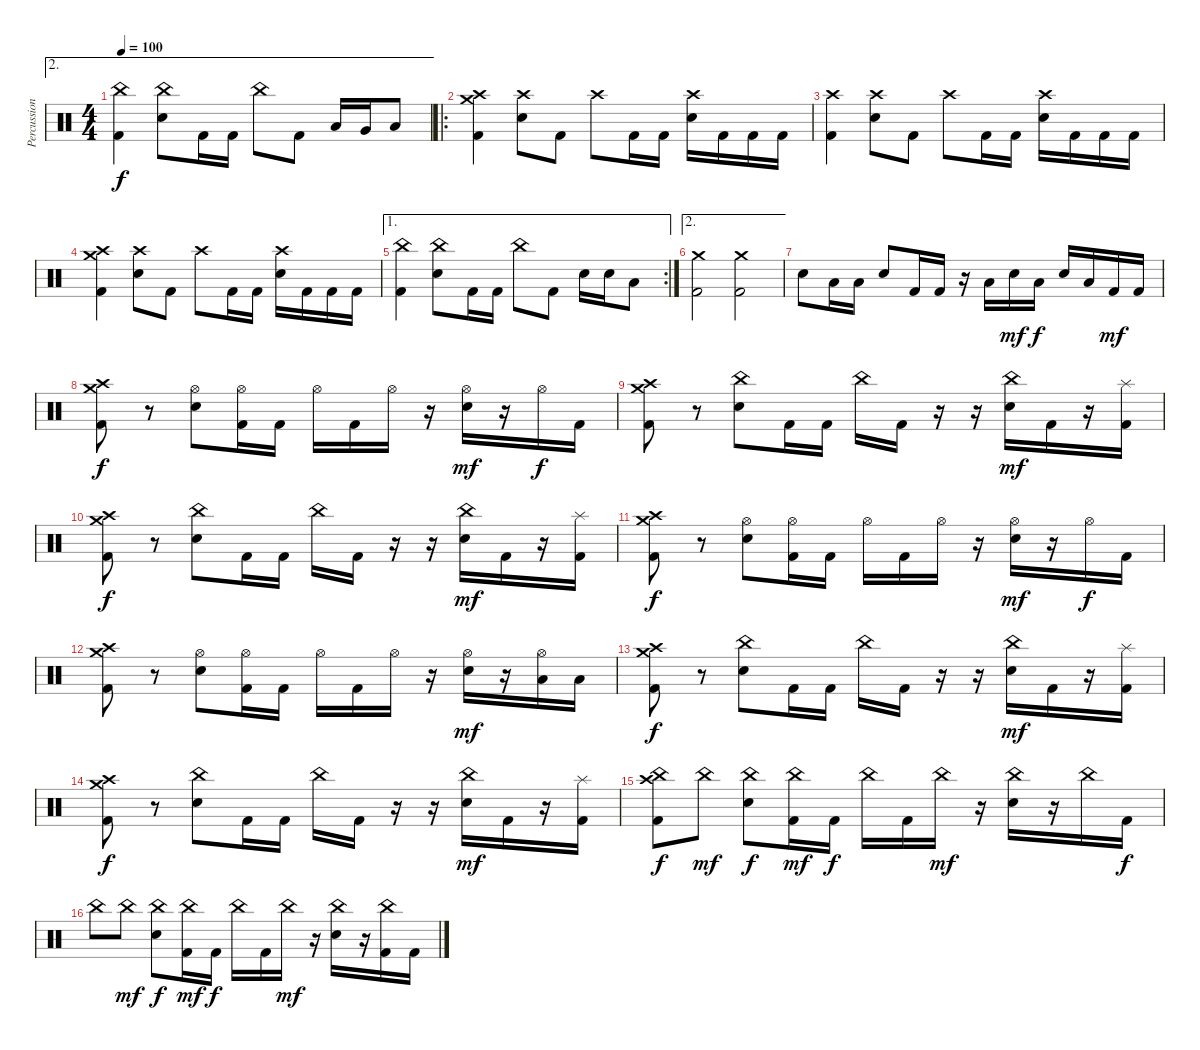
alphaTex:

\track ("Percussion" "Percussion") {instrument percussion}
\staff {score}
\articulation defaults
\ae 2
\ts (4 4)
\tempo 100
\clef neutral
\ks c
("China (hit)" "Kick (hit) 2").4{dy f} ("China (hit)" "Electric Snare (hit)").8 "Kick (hit) 2".16 "Kick (hit) 2".16 "China (hit)".8 "Kick (hit) 2".8 "Low Tom (hit)".16 "Very Low Tom (hit)".16 "Low Floor Tom (hit)".8 |
\ro
("Crash medium (hit)" "Crash high (hit)" "Kick (hit) 2").4 ("Crash high (hit)" "Electric Snare (hit)").8 "Kick (hit) 2".8 "Crash high (hit)".8 "Kick (hit) 2".16 "Kick (hit) 2".16 ("Crash high (hit)" "Electric Snare (hit)").16 "Kick (hit) 2".16 "Kick (hit) 2".16 "Kick (hit) 2".16 |
("Crash high (hit)" "Kick (hit) 2").4 ("Crash high (hit)" "Electric Snare (hit)").8 "Kick (hit) 2".8 "Crash high (hit)".8 "Kick (hit) 2".16 "Kick (hit) 2".16 ("Crash high (hit)" "Electric Snare (hit)").16 "Kick (hit) 2".16 "Kick (hit) 2".16 "Kick (hit) 2".16 |
("Crash medium (hit)" "Crash high (hit)" "Kick (hit) 2").4 ("Crash high (hit)" "Electric Snare (hit)").8 "Kick (hit) 2".8 "Crash high (hit)".8 "Kick (hit) 2".16 "Kick (hit) 2".16 ("Crash high (hit)" "Electric Snare (hit)").16 "Kick (hit) 2".16 "Kick (hit) 2".16 "Kick (hit) 2".16 |
\ae 1
\rc 2
("China (hit)" "Kick (hit) 2").4 ("China (hit)" "Electric Snare (hit)").8 "Kick (hit) 2".16 "Kick (hit) 2".16 "China (hit)".8 "Kick (hit) 2".8 "Electric Snare (hit)".16 "Electric Snare (hit)".16 "Low Floor Tom (hit)".8 |
\ae 2
("Crash medium (hit)" "Kick (hit) 2").2 ("Crash medium (hit)" "Kick (hit) 2").2 |
"Electric Snare (hit)".8 "Low Floor Tom (hit)".16 "Low Floor Tom (hit)".16 "Electric Snare (hit)".8 "Kick (hit) 2".16 "Kick (hit) 2".16 r.16 "Low Tom (hit)".16 "Electric Snare (hit)".16{dy mf} "Low Floor Tom (hit)".16{dy f} "Electric Snare (hit)".16 "Low Tom (hit)".16 "Kick (hit) 2".16{dy mf} "Kick (hit) 2".16 |
("Crash high (hit)" "Crash medium (hit)" "Kick (hit) 2").8{dy f} r.8 ("Hi-Hat (open)" "Electric Snare (hit)").8 ("Hi-Hat (open)" "Kick (hit) 2").16 "Kick (hit) 2".16 "Hi-Hat (open)".16 "Kick (hit) 2".16 "Hi-Hat (open)".16 r.16 ("Hi-Hat (open)" "Electric Snare (hit)").16{dy mf} r.16 "Hi-Hat (open)".16{dy f} "Kick (hit) 2".16 |
("Crash high (hit)" "Crash medium (hit)" "Kick (hit) 2").8 r.8 ("China (hit)" "Electric Snare (hit)").8 "Kick (hit) 2".16 "Kick (hit) 2".16 "China (hit)".16 "Kick (hit) 2".16 r.16 r.16 ("China (hit)" "Electric Snare (hit)").16{dy mf} "Kick (hit) 2".16 r.16 ("Splash (hit)" "Kick (hit) 2").16 |
("Crash high (hit)" "Crash medium (hit)" "Kick (hit) 2").8{dy f} r.8 ("China (hit)" "Electric Snare (hit)").8 "Kick (hit) 2".16 "Kick (hit) 2".16 "China (hit)".16 "Kick (hit) 2".16 r.16 r.16 ("China (hit)" "Electric Snare (hit)").16{dy mf} "Kick (hit) 2".16 r.16 ("Splash (hit)" "Kick (hit) 2").16 |
("Crash high (hit)" "Crash medium (hit)" "Kick (hit) 2").8{dy f} r.8 ("Hi-Hat (open)" "Electric Snare (hit)").8 ("Hi-Hat (open)" "Kick (hit) 2").16 "Kick (hit) 2".16 "Hi-Hat (open)".16 "Kick (hit) 2".16 "Hi-Hat (open)".16 r.16 ("Hi-Hat (open)" "Electric Snare (hit)").16{dy mf} r.16 "Hi-Hat (open)".16{dy f} "Kick (hit) 2".16 |
("Crash high (hit)" "Crash medium (hit)" "Kick (hit) 2").8 r.8 ("Hi-Hat (open)" "Electric Snare (hit)").8 ("Hi-Hat (open)" "Kick (hit) 2").16 "Kick (hit) 2".16 "Hi-Hat (open)".16 "Kick (hit) 2".16 "Hi-Hat (open)".16 r.16 ("Hi-Hat (open)" "Electric Snare (hit)").16{dy mf} r.16 ("Hi-Hat (open)" "Low Tom (hit)").16 "Low Floor Tom (hit)".16 |
("Crash high (hit)" "Crash medium (hit)" "Kick (hit) 2").8{dy f} r.8 ("China (hit)" "Electric Snare (hit)").8 "Kick (hit) 2".16 "Kick (hit) 2".16 "China (hit)".16 "Kick (hit) 2".16 r.16 r.16 ("China (hit)" "Electric Snare (hit)").16{dy mf} "Kick (hit) 2".16 r.16 ("Splash (hit)" "Kick (hit) 2").16 |
("Crash high (hit)" "Crash medium (hit)" "Kick (hit) 2").8{dy f} r.8 ("China (hit)" "Electric Snare (hit)").8 "Kick (hit) 2".16 "Kick (hit) 2".16 "China (hit)".16 "Kick (hit) 2".16 r.16 r.16 ("China (hit)" "Electric Snare (hit)").16{dy mf} "Kick (hit) 2".16 r.16 ("Splash (hit)" "Kick (hit) 2").16 |
("China (hit)" "Crash high (hit)" "Kick (hit) 2").8{dy f} "China (hit)".8{dy mf} ("China (hit)" "Electric Snare (hit)").8{dy f} ("China (hit)" "Kick (hit) 2").16{dy mf} "Kick (hit) 2".16{dy f} "China (hit)".16 "Kick (hit) 2".16 "China (hit)".16{dy mf} r.16 ("China (hit)" "Electric Snare (hit)").16 r.16 "China (hit)".16 "Kick (hit) 2".16{dy f} |
"China (hit)".8 "China (hit)".8{dy mf} ("China (hit)" "Electric Snare (hit)").8{dy f} ("China (hit)" "Kick (hit) 2").16{dy mf} "Kick (hit) 2".16{dy f} "China (hit)".16 "Kick (hit) 2".16 "China (hit)".16{dy mf} r.16 ("China (hit)" "Electric Snare (hit)").16 r.16 ("China (hit)" "Kick (hit) 2").16 "Kick (hit) 2".16
